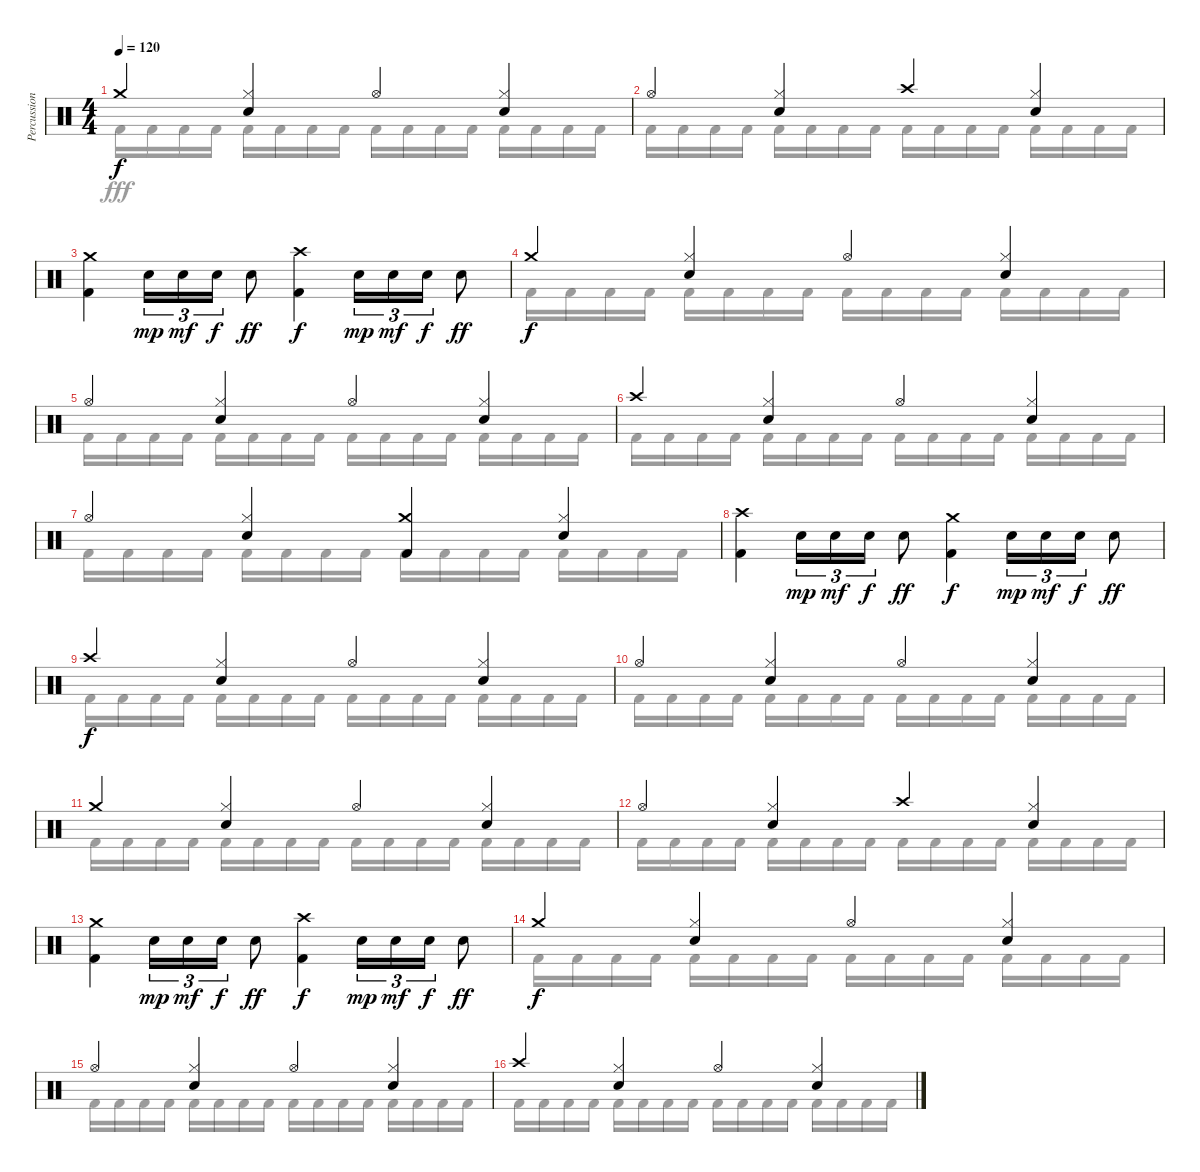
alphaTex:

\track ("Percussion" "Percussion") {instrument percussion}
\staff {score}
\articulation defaults
\voice
\ts (4 4)
\tempo 120
\clef neutral
\ks c "Crash medium (hit)".4{dy f}
("Hi-Hat (closed)" "Electric Snare (hit)").4 "Hi-Hat (open)".4 ("Hi-Hat (closed)" "Electric Snare (hit)").4 |
"Hi-Hat (open)".4 ("Hi-Hat (closed)" "Electric Snare (hit)").4 "Crash high (hit)".4 ("Hi-Hat (closed)" "Electric Snare (hit)").4 |
("Crash medium (hit)" "Kick (hit) 2").4 "Electric Snare (hit)".16{tu (3 2) dy mp} "Electric Snare (hit)".16{tu (3 2) dy mf} "Electric Snare (hit)".16{tu (3 2) dy f} "Electric Snare (hit)".8{dy ff} ("Crash high (hit)" "Kick (hit) 2").4{dy f} "Electric Snare (hit)".16{tu (3 2) dy mp} "Electric Snare (hit)".16{tu (3 2) dy mf} "Electric Snare (hit)".16{tu (3 2) dy f} "Electric Snare (hit)".8{dy ff} |
"Crash medium (hit)".4{dy f} ("Hi-Hat (closed)" "Electric Snare (hit)").4 "Hi-Hat (open)".4 ("Hi-Hat (closed)" "Electric Snare (hit)").4 |
"Hi-Hat (open)".4 ("Hi-Hat (closed)" "Electric Snare (hit)").4 "Hi-Hat (open)".4 ("Hi-Hat (closed)" "Electric Snare (hit)").4 |
"Crash high (hit)".4 ("Hi-Hat (closed)" "Electric Snare (hit)").4 "Hi-Hat (open)".4 ("Hi-Hat (closed)" "Electric Snare (hit)").4 |
"Hi-Hat (open)".4 ("Hi-Hat (closed)" "Electric Snare (hit)").4 ("Crash medium (hit)" "Kick (hit) 2").4 ("Hi-Hat (closed)" "Electric Snare (hit)").4 |
("Crash high (hit)" "Kick (hit) 2").4 "Electric Snare (hit)".16{tu (3 2) dy mp} "Electric Snare (hit)".16{tu (3 2) dy mf} "Electric Snare (hit)".16{tu (3 2) dy f} "Electric Snare (hit)".8{dy ff} ("Crash medium (hit)" "Kick (hit) 2").4{dy f} "Electric Snare (hit)".16{tu (3 2) dy mp} "Electric Snare (hit)".16{tu (3 2) dy mf} "Electric Snare (hit)".16{tu (3 2) dy f} "Electric Snare (hit)".8{dy ff} |
"Crash high (hit)".4{dy f} ("Hi-Hat (closed)" "Electric Snare (hit)").4 "Hi-Hat (open)".4 ("Hi-Hat (closed)" "Electric Snare (hit)").4 |
"Hi-Hat (open)".4 ("Hi-Hat (closed)" "Electric Snare (hit)").4 "Hi-Hat (open)".4 ("Hi-Hat (closed)" "Electric Snare (hit)").4 |
"Crash medium (hit)".4 ("Hi-Hat (closed)" "Electric Snare (hit)").4 "Hi-Hat (open)".4 ("Hi-Hat (closed)" "Electric Snare (hit)").4 |
"Hi-Hat (open)".4 ("Hi-Hat (closed)" "Electric Snare (hit)").4 "Crash high (hit)".4 ("Hi-Hat (closed)" "Electric Snare (hit)").4 |
("Crash medium (hit)" "Kick (hit) 2").4 "Electric Snare (hit)".16{tu (3 2) dy mp} "Electric Snare (hit)".16{tu (3 2) dy mf} "Electric Snare (hit)".16{tu (3 2) dy f} "Electric Snare (hit)".8{dy ff} ("Crash high (hit)" "Kick (hit) 2").4{dy f} "Electric Snare (hit)".16{tu (3 2) dy mp} "Electric Snare (hit)".16{tu (3 2) dy mf} "Electric Snare (hit)".16{tu (3 2) dy f} "Electric Snare (hit)".8{dy ff} |
"Crash medium (hit)".4{dy f} ("Hi-Hat (closed)" "Electric Snare (hit)").4 "Hi-Hat (open)".4 ("Hi-Hat (closed)" "Electric Snare (hit)").4 |
"Hi-Hat (open)".4 ("Hi-Hat (closed)" "Electric Snare (hit)").4 "Hi-Hat (open)".4 ("Hi-Hat (closed)" "Electric Snare (hit)").4 |
"Crash high (hit)".4 ("Hi-Hat (closed)" "Electric Snare (hit)").4 "Hi-Hat (open)".4 ("Hi-Hat (closed)" "Electric Snare (hit)").4
\voice
\clef neutral
\ottava regular
\simile none
\ks c "Kick (hit) 2".16{dy fff} "Kick (hit) 2".16 "Kick (hit) 2".16 "Kick (hit) 2".16 "Kick (hit) 2".16 "Kick (hit) 2".16 "Kick (hit) 2".16 "Kick (hit) 2".16 "Kick (hit) 2".16 "Kick (hit) 2".16 "Kick (hit) 2".16 "Kick (hit) 2".16 "Kick (hit) 2".16 "Kick (hit) 2".16 "Kick (hit) 2".16 "Kick (hit) 2".16
|
"Kick (hit) 2".16 "Kick (hit) 2".16 "Kick (hit) 2".16 "Kick (hit) 2".16 "Kick (hit) 2".16 "Kick (hit) 2".16 "Kick (hit) 2".16 "Kick (hit) 2".16 "Kick (hit) 2".16 "Kick (hit) 2".16 "Kick (hit) 2".16 "Kick (hit) 2".16 "Kick (hit) 2".16 "Kick (hit) 2".16 "Kick (hit) 2".16 "Kick (hit) 2".16 |
|
"Kick (hit) 2".16 "Kick (hit) 2".16 "Kick (hit) 2".16 "Kick (hit) 2".16 "Kick (hit) 2".16 "Kick (hit) 2".16 "Kick (hit) 2".16 "Kick (hit) 2".16 "Kick (hit) 2".16 "Kick (hit) 2".16 "Kick (hit) 2".16 "Kick (hit) 2".16 "Kick (hit) 2".16 "Kick (hit) 2".16 "Kick (hit) 2".16 "Kick (hit) 2".16 |
"Kick (hit) 2".16 "Kick (hit) 2".16 "Kick (hit) 2".16 "Kick (hit) 2".16 "Kick (hit) 2".16 "Kick (hit) 2".16 "Kick (hit) 2".16 "Kick (hit) 2".16 "Kick (hit) 2".16 "Kick (hit) 2".16 "Kick (hit) 2".16 "Kick (hit) 2".16 "Kick (hit) 2".16 "Kick (hit) 2".16 "Kick (hit) 2".16 "Kick (hit) 2".16 |
"Kick (hit) 2".16 "Kick (hit) 2".16 "Kick (hit) 2".16 "Kick (hit) 2".16 "Kick (hit) 2".16 "Kick (hit) 2".16 "Kick (hit) 2".16 "Kick (hit) 2".16 "Kick (hit) 2".16 "Kick (hit) 2".16 "Kick (hit) 2".16 "Kick (hit) 2".16 "Kick (hit) 2".16 "Kick (hit) 2".16 "Kick (hit) 2".16 "Kick (hit) 2".16 |
"Kick (hit) 2".16 "Kick (hit) 2".16 "Kick (hit) 2".16 "Kick (hit) 2".16 "Kick (hit) 2".16 "Kick (hit) 2".16 "Kick (hit) 2".16 "Kick (hit) 2".16 "Kick (hit) 2".16 "Kick (hit) 2".16 "Kick (hit) 2".16 "Kick (hit) 2".16 "Kick (hit) 2".16 "Kick (hit) 2".16 "Kick (hit) 2".16 "Kick (hit) 2".16 |
|
"Kick (hit) 2".16 "Kick (hit) 2".16 "Kick (hit) 2".16 "Kick (hit) 2".16 "Kick (hit) 2".16 "Kick (hit) 2".16 "Kick (hit) 2".16 "Kick (hit) 2".16 "Kick (hit) 2".16 "Kick (hit) 2".16 "Kick (hit) 2".16 "Kick (hit) 2".16 "Kick (hit) 2".16 "Kick (hit) 2".16 "Kick (hit) 2".16 "Kick (hit) 2".16 |
"Kick (hit) 2".16 "Kick (hit) 2".16 "Kick (hit) 2".16 "Kick (hit) 2".16 "Kick (hit) 2".16 "Kick (hit) 2".16 "Kick (hit) 2".16 "Kick (hit) 2".16 "Kick (hit) 2".16 "Kick (hit) 2".16 "Kick (hit) 2".16 "Kick (hit) 2".16 "Kick (hit) 2".16 "Kick (hit) 2".16 "Kick (hit) 2".16 "Kick (hit) 2".16 |
"Kick (hit) 2".16 "Kick (hit) 2".16 "Kick (hit) 2".16 "Kick (hit) 2".16 "Kick (hit) 2".16 "Kick (hit) 2".16 "Kick (hit) 2".16 "Kick (hit) 2".16 "Kick (hit) 2".16 "Kick (hit) 2".16 "Kick (hit) 2".16 "Kick (hit) 2".16 "Kick (hit) 2".16 "Kick (hit) 2".16 "Kick (hit) 2".16 "Kick (hit) 2".16 |
"Kick (hit) 2".16 "Kick (hit) 2".16 "Kick (hit) 2".16 "Kick (hit) 2".16 "Kick (hit) 2".16 "Kick (hit) 2".16 "Kick (hit) 2".16 "Kick (hit) 2".16 "Kick (hit) 2".16 "Kick (hit) 2".16 "Kick (hit) 2".16 "Kick (hit) 2".16 "Kick (hit) 2".16 "Kick (hit) 2".16 "Kick (hit) 2".16 "Kick (hit) 2".16 |
|
"Kick (hit) 2".16 "Kick (hit) 2".16 "Kick (hit) 2".16 "Kick (hit) 2".16 "Kick (hit) 2".16 "Kick (hit) 2".16 "Kick (hit) 2".16 "Kick (hit) 2".16 "Kick (hit) 2".16 "Kick (hit) 2".16 "Kick (hit) 2".16 "Kick (hit) 2".16 "Kick (hit) 2".16 "Kick (hit) 2".16 "Kick (hit) 2".16 "Kick (hit) 2".16 |
"Kick (hit) 2".16 "Kick (hit) 2".16 "Kick (hit) 2".16 "Kick (hit) 2".16 "Kick (hit) 2".16 "Kick (hit) 2".16 "Kick (hit) 2".16 "Kick (hit) 2".16 "Kick (hit) 2".16 "Kick (hit) 2".16 "Kick (hit) 2".16 "Kick (hit) 2".16 "Kick (hit) 2".16 "Kick (hit) 2".16 "Kick (hit) 2".16 "Kick (hit) 2".16 |
"Kick (hit) 2".16 "Kick (hit) 2".16 "Kick (hit) 2".16 "Kick (hit) 2".16 "Kick (hit) 2".16 "Kick (hit) 2".16 "Kick (hit) 2".16 "Kick (hit) 2".16 "Kick (hit) 2".16 "Kick (hit) 2".16 "Kick (hit) 2".16 "Kick (hit) 2".16 "Kick (hit) 2".16 "Kick (hit) 2".16 "Kick (hit) 2".16 "Kick (hit) 2".16
